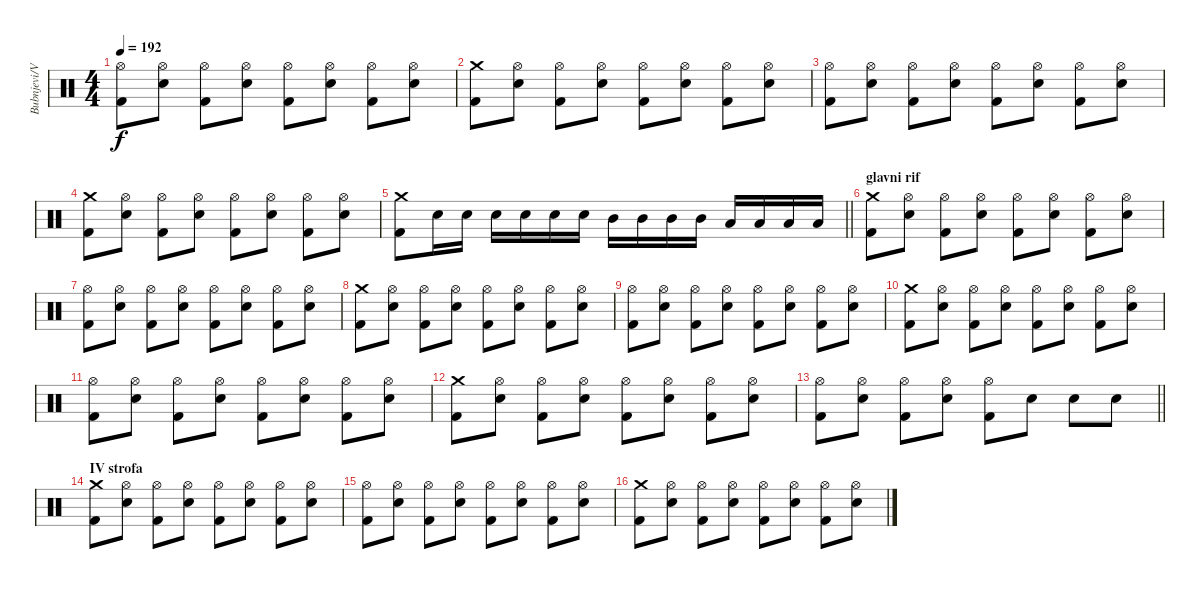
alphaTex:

\track ("Bubnjevi/Vestac Tlacitelj" "Bubnjevi/V") {instrument percussion}
\staff {score}
\articulation defaults
\ts (4 4)
\tempo 192
\clef neutral
\ks c
("Hi-Hat (open)" "Kick (hit) 2").8{dy f} ("Hi-Hat (open)" "Electric Snare (hit)").8 ("Hi-Hat (open)" "Kick (hit) 2").8 ("Hi-Hat (open)" "Electric Snare (hit)").8 ("Hi-Hat (open)" "Kick (hit) 2").8 ("Hi-Hat (open)" "Electric Snare (hit)").8 ("Hi-Hat (open)" "Kick (hit) 2").8 ("Hi-Hat (open)" "Electric Snare (hit)").8 |
("Crash medium (hit)" "Kick (hit) 2").8 ("Hi-Hat (open)" "Electric Snare (hit)").8 ("Hi-Hat (open)" "Kick (hit) 2").8 ("Hi-Hat (open)" "Electric Snare (hit)").8 ("Hi-Hat (open)" "Kick (hit) 2").8 ("Hi-Hat (open)" "Electric Snare (hit)").8 ("Hi-Hat (open)" "Kick (hit) 2").8 ("Hi-Hat (open)" "Electric Snare (hit)").8 |
("Hi-Hat (open)" "Kick (hit) 2").8 ("Hi-Hat (open)" "Electric Snare (hit)").8 ("Hi-Hat (open)" "Kick (hit) 2").8 ("Hi-Hat (open)" "Electric Snare (hit)").8 ("Hi-Hat (open)" "Kick (hit) 2").8 ("Hi-Hat (open)" "Electric Snare (hit)").8 ("Hi-Hat (open)" "Kick (hit) 2").8 ("Hi-Hat (open)" "Electric Snare (hit)").8 |
("Crash medium (hit)" "Kick (hit) 2").8 ("Hi-Hat (open)" "Electric Snare (hit)").8 ("Hi-Hat (open)" "Kick (hit) 2").8 ("Hi-Hat (open)" "Electric Snare (hit)").8 ("Hi-Hat (open)" "Kick (hit) 2").8 ("Hi-Hat (open)" "Electric Snare (hit)").8 ("Hi-Hat (open)" "Kick (hit) 2").8 ("Hi-Hat (open)" "Electric Snare (hit)").8 |
\barLineRight lightlight
("Crash medium (hit)" "Kick (hit) 2").8 "Electric Snare (hit)".16 "Electric Snare (hit)".16 "Electric Snare (hit)".16 "Electric Snare (hit)".16 "Electric Snare (hit)".16 "Electric Snare (hit)".16 "Mid Tom (hit)".16 "Mid Tom (hit)".16 "Mid Tom (hit)".16 "Mid Tom (hit)".16 "Low Tom (hit)".16 "Low Tom (hit)".16 "Low Tom (hit)".16 "Low Tom (hit)".16 |
\section ("" "glavni rif")
("Crash medium (hit)" "Kick (hit) 2").8 ("Hi-Hat (open)" "Electric Snare (hit)").8 ("Hi-Hat (open)" "Kick (hit) 2").8 ("Hi-Hat (open)" "Electric Snare (hit)").8 ("Hi-Hat (open)" "Kick (hit) 2").8 ("Hi-Hat (open)" "Electric Snare (hit)").8 ("Hi-Hat (open)" "Kick (hit) 2").8 ("Hi-Hat (open)" "Electric Snare (hit)").8 |
("Hi-Hat (open)" "Kick (hit) 2").8 ("Hi-Hat (open)" "Electric Snare (hit)").8 ("Hi-Hat (open)" "Kick (hit) 2").8 ("Hi-Hat (open)" "Electric Snare (hit)").8 ("Hi-Hat (open)" "Kick (hit) 2").8 ("Hi-Hat (open)" "Electric Snare (hit)").8 ("Hi-Hat (open)" "Kick (hit) 2").8 ("Hi-Hat (open)" "Electric Snare (hit)").8 |
("Crash medium (hit)" "Kick (hit) 2").8 ("Hi-Hat (open)" "Electric Snare (hit)").8 ("Hi-Hat (open)" "Kick (hit) 2").8 ("Hi-Hat (open)" "Electric Snare (hit)").8 ("Hi-Hat (open)" "Kick (hit) 2").8 ("Hi-Hat (open)" "Electric Snare (hit)").8 ("Hi-Hat (open)" "Kick (hit) 2").8 ("Hi-Hat (open)" "Electric Snare (hit)").8 |
("Hi-Hat (open)" "Kick (hit) 2").8 ("Hi-Hat (open)" "Electric Snare (hit)").8 ("Hi-Hat (open)" "Kick (hit) 2").8 ("Hi-Hat (open)" "Electric Snare (hit)").8 ("Hi-Hat (open)" "Kick (hit) 2").8 ("Hi-Hat (open)" "Electric Snare (hit)").8 ("Hi-Hat (open)" "Kick (hit) 2").8 ("Hi-Hat (open)" "Electric Snare (hit)").8 |
("Crash medium (hit)" "Kick (hit) 2").8 ("Hi-Hat (open)" "Electric Snare (hit)").8 ("Hi-Hat (open)" "Kick (hit) 2").8 ("Hi-Hat (open)" "Electric Snare (hit)").8 ("Hi-Hat (open)" "Kick (hit) 2").8 ("Hi-Hat (open)" "Electric Snare (hit)").8 ("Hi-Hat (open)" "Kick (hit) 2").8 ("Hi-Hat (open)" "Electric Snare (hit)").8 |
("Hi-Hat (open)" "Kick (hit) 2").8 ("Hi-Hat (open)" "Electric Snare (hit)").8 ("Hi-Hat (open)" "Kick (hit) 2").8 ("Hi-Hat (open)" "Electric Snare (hit)").8 ("Hi-Hat (open)" "Kick (hit) 2").8 ("Hi-Hat (open)" "Electric Snare (hit)").8 ("Hi-Hat (open)" "Kick (hit) 2").8 ("Hi-Hat (open)" "Electric Snare (hit)").8 |
("Crash medium (hit)" "Kick (hit) 2").8 ("Hi-Hat (open)" "Electric Snare (hit)").8 ("Hi-Hat (open)" "Kick (hit) 2").8 ("Hi-Hat (open)" "Electric Snare (hit)").8 ("Hi-Hat (open)" "Kick (hit) 2").8 ("Hi-Hat (open)" "Electric Snare (hit)").8 ("Hi-Hat (open)" "Kick (hit) 2").8 ("Hi-Hat (open)" "Electric Snare (hit)").8 |
\barLineRight lightlight
("Hi-Hat (open)" "Kick (hit) 2").8 ("Hi-Hat (open)" "Electric Snare (hit)").8 ("Hi-Hat (open)" "Kick (hit) 2").8 ("Hi-Hat (open)" "Electric Snare (hit)").8 ("Hi-Hat (open)" "Kick (hit) 2").8 "Electric Snare (hit)".8 "Electric Snare (hit)".8 "Electric Snare (hit)".8 |
\section ("" "IV strofa")
("Crash medium (hit)" "Kick (hit) 2").8 ("Hi-Hat (open)" "Electric Snare (hit)").8 ("Hi-Hat (open)" "Kick (hit) 2").8 ("Hi-Hat (open)" "Electric Snare (hit)").8 ("Hi-Hat (open)" "Kick (hit) 2").8 ("Hi-Hat (open)" "Electric Snare (hit)").8 ("Hi-Hat (open)" "Kick (hit) 2").8 ("Hi-Hat (open)" "Electric Snare (hit)").8 |
("Hi-Hat (open)" "Kick (hit) 2").8 ("Hi-Hat (open)" "Electric Snare (hit)").8 ("Hi-Hat (open)" "Kick (hit) 2").8 ("Hi-Hat (open)" "Electric Snare (hit)").8 ("Hi-Hat (open)" "Kick (hit) 2").8 ("Hi-Hat (open)" "Electric Snare (hit)").8 ("Hi-Hat (open)" "Kick (hit) 2").8 ("Hi-Hat (open)" "Electric Snare (hit)").8 |
("Crash medium (hit)" "Kick (hit) 2").8 ("Hi-Hat (open)" "Electric Snare (hit)").8 ("Hi-Hat (open)" "Kick (hit) 2").8 ("Hi-Hat (open)" "Electric Snare (hit)").8 ("Hi-Hat (open)" "Kick (hit) 2").8 ("Hi-Hat (open)" "Electric Snare (hit)").8 ("Hi-Hat (open)" "Kick (hit) 2").8 ("Hi-Hat (open)" "Electric Snare (hit)").8
